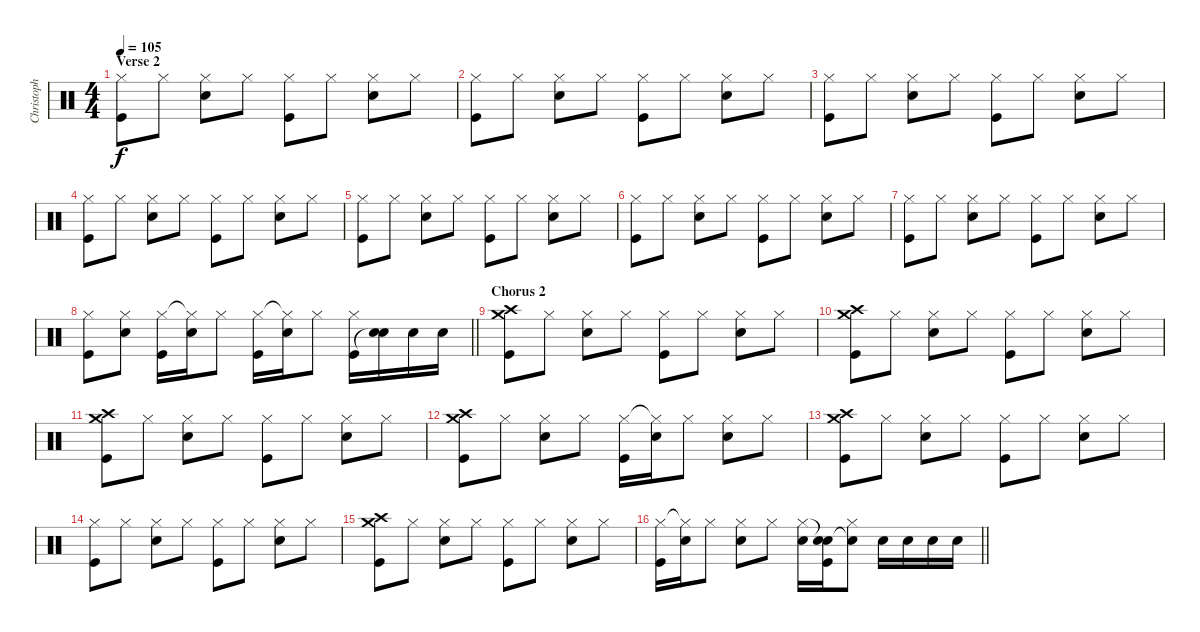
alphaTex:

\track ("Christoph Schneider" "Christoph ") {instrument percussion}
\staff {score}
\articulation defaults
\ts (4 4)
\section ("" "Verse 2")
\tempo 105
\clef neutral
\ks c
("Hi-Hat (closed)" "Kick (hit)").8{dy f} "Hi-Hat (closed)".8 ("Hi-Hat (closed)" "Snare (hit) 2").8 "Hi-Hat (closed)".8 ("Hi-Hat (closed)" "Kick (hit)").8 "Hi-Hat (closed)".8 ("Hi-Hat (closed)" "Snare (hit) 2").8 "Hi-Hat (closed)".8 |
("Hi-Hat (closed)" "Kick (hit)").8 "Hi-Hat (closed)".8 ("Hi-Hat (closed)" "Snare (hit) 2").8 "Hi-Hat (closed)".8 ("Hi-Hat (closed)" "Kick (hit)").8 "Hi-Hat (closed)".8 ("Hi-Hat (closed)" "Snare (hit) 2").8 "Hi-Hat (closed)".8 |
("Hi-Hat (closed)" "Kick (hit)").8 "Hi-Hat (closed)".8 ("Hi-Hat (closed)" "Snare (hit) 2").8 "Hi-Hat (closed)".8 ("Hi-Hat (closed)" "Kick (hit)").8 "Hi-Hat (closed)".8 ("Hi-Hat (closed)" "Snare (hit) 2").8 "Hi-Hat (closed)".8 |
("Hi-Hat (closed)" "Kick (hit)").8 "Hi-Hat (closed)".8 ("Hi-Hat (closed)" "Snare (hit) 2").8 "Hi-Hat (closed)".8 ("Hi-Hat (closed)" "Kick (hit)").8 "Hi-Hat (closed)".8 ("Hi-Hat (closed)" "Snare (hit) 2").8 "Hi-Hat (closed)".8 |
("Hi-Hat (closed)" "Kick (hit)").8 "Hi-Hat (closed)".8 ("Hi-Hat (closed)" "Snare (hit) 2").8 "Hi-Hat (closed)".8 ("Hi-Hat (closed)" "Kick (hit)").8 "Hi-Hat (closed)".8 ("Hi-Hat (closed)" "Snare (hit) 2").8 "Hi-Hat (closed)".8 |
("Hi-Hat (closed)" "Kick (hit)").8 "Hi-Hat (closed)".8 ("Hi-Hat (closed)" "Snare (hit) 2").8 "Hi-Hat (closed)".8 ("Hi-Hat (closed)" "Kick (hit)").8 "Hi-Hat (closed)".8 ("Hi-Hat (closed)" "Snare (hit) 2").8 "Hi-Hat (closed)".8 |
("Hi-Hat (closed)" "Kick (hit)").8 "Hi-Hat (closed)".8 ("Hi-Hat (closed)" "Snare (hit) 2").8 "Hi-Hat (closed)".8 ("Hi-Hat (closed)" "Kick (hit)").8 "Hi-Hat (closed)".8 ("Hi-Hat (closed)" "Snare (hit) 2").8 "Hi-Hat (closed)".8 |
\barLineRight lightlight
("Hi-Hat (closed)" "Kick (hit)").8 ("Hi-Hat (closed)" "Snare (hit) 2").8 ("Hi-Hat (closed)" "Kick (hit)").16 ("Hi-Hat (closed)"{t} "Snare (hit) 2").16 "Hi-Hat (closed)".8 ("Hi-Hat (closed)" "Kick (hit)").16 ("Hi-Hat (closed)"{t} "Snare (hit) 2").16 "Hi-Hat (closed)".8 ("Hi-Hat (closed)" "Kick (hit)").16 ("Snare (hit) 2" "Snare (hit)"{t}).16 "Snare (hit) 2".16 "Snare (hit) 2".16 |
\section ("" "Chorus 2")
("Crash medium (hit)" "Crash high (hit)" "Kick (hit)").8 "Hi-Hat (closed)".8 ("Hi-Hat (closed)" "Snare (hit) 2").8 "Hi-Hat (closed)".8 ("Hi-Hat (closed)" "Kick (hit)").8 "Hi-Hat (closed)".8 ("Hi-Hat (closed)" "Snare (hit) 2").8 "Hi-Hat (closed)".8 |
("Crash medium (hit)" "Crash high (hit)" "Kick (hit)").8 "Hi-Hat (closed)".8 ("Hi-Hat (closed)" "Snare (hit) 2").8 "Hi-Hat (closed)".8 ("Hi-Hat (closed)" "Kick (hit)").8 "Hi-Hat (closed)".8 ("Hi-Hat (closed)" "Snare (hit) 2").8 "Hi-Hat (closed)".8 |
("Crash medium (hit)" "Crash high (hit)" "Kick (hit)").8 "Hi-Hat (closed)".8 ("Hi-Hat (closed)" "Snare (hit) 2").8 "Hi-Hat (closed)".8 ("Hi-Hat (closed)" "Kick (hit)").8 "Hi-Hat (closed)".8 ("Hi-Hat (closed)" "Snare (hit) 2").8 "Hi-Hat (closed)".8 |
("Crash medium (hit)" "Crash high (hit)" "Kick (hit)").8 "Hi-Hat (closed)".8 ("Hi-Hat (closed)" "Snare (hit) 2").8 "Hi-Hat (closed)".8 ("Hi-Hat (closed)" "Kick (hit)").16 ("Hi-Hat (closed)"{t} "Snare (hit) 2").16 "Hi-Hat (closed)".8 ("Hi-Hat (closed)" "Snare (hit) 2").8 "Hi-Hat (closed)".8 |
("Crash medium (hit)" "Crash high (hit)" "Kick (hit)").8 "Hi-Hat (closed)".8 ("Hi-Hat (closed)" "Snare (hit) 2").8 "Hi-Hat (closed)".8 ("Hi-Hat (closed)" "Kick (hit)").8 "Hi-Hat (closed)".8 ("Hi-Hat (closed)" "Snare (hit) 2").8 "Hi-Hat (closed)".8 |
("Hi-Hat (closed)" "Kick (hit)").8 "Hi-Hat (closed)".8 ("Hi-Hat (closed)" "Snare (hit) 2").8 "Hi-Hat (closed)".8 ("Hi-Hat (closed)" "Kick (hit)").8 "Hi-Hat (closed)".8 ("Hi-Hat (closed)" "Snare (hit) 2").8 "Hi-Hat (closed)".8 |
("Crash medium (hit)" "Crash high (hit)" "Kick (hit)").8 "Hi-Hat (closed)".8 ("Hi-Hat (closed)" "Snare (hit) 2").8 "Hi-Hat (closed)".8 ("Hi-Hat (closed)" "Kick (hit)").8 "Hi-Hat (closed)".8 ("Hi-Hat (closed)" "Snare (hit) 2").8 "Hi-Hat (closed)".8 |
\barLineRight lightlight
("Hi-Hat (closed)" "Kick (hit)").16 ("Hi-Hat (closed)"{t} "Snare (hit) 2").16 "Hi-Hat (closed)".8 ("Hi-Hat (closed)" "Snare (hit) 2").8 "Hi-Hat (closed)".8 ("Hi-Hat (closed)" "Snare (hit) 2").16 ("Snare (hit)"{t} "Snare (hit) 2" "Kick (hit)").16 ("Hi-Hat (closed)" "Snare (hit)"{t}).8 "Snare (hit) 2".16 "Snare (hit) 2".16 "Snare (hit) 2".16 "Snare (hit) 2".16
